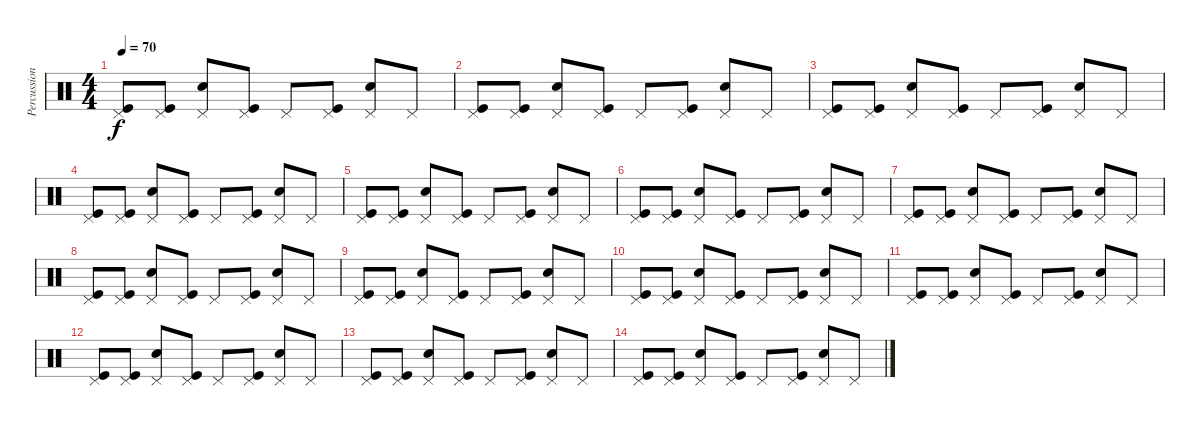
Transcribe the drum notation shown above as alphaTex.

\track ("Percussion" "Percussion") {instrument percussion}
\staff {score}
\articulation defaults
\ts (4 4)
\tempo 70
\clef neutral
\ks c
("Pedal Hi-Hat (hit)" "Kick (hit)").8{dy f} ("Pedal Hi-Hat (hit)" "Kick (hit)").8 ("Pedal Hi-Hat (hit)" "Snare (hit) 2").8 ("Pedal Hi-Hat (hit)" "Kick (hit)").8 "Pedal Hi-Hat (hit)".8 ("Pedal Hi-Hat (hit)" "Kick (hit)").8 ("Pedal Hi-Hat (hit)" "Snare (hit) 2").8 "Pedal Hi-Hat (hit)".8 |
("Pedal Hi-Hat (hit)" "Kick (hit)").8 ("Pedal Hi-Hat (hit)" "Kick (hit)").8 ("Pedal Hi-Hat (hit)" "Snare (hit) 2").8 ("Pedal Hi-Hat (hit)" "Kick (hit)").8 "Pedal Hi-Hat (hit)".8 ("Pedal Hi-Hat (hit)" "Kick (hit)").8 ("Pedal Hi-Hat (hit)" "Snare (hit) 2").8 "Pedal Hi-Hat (hit)".8 |
("Pedal Hi-Hat (hit)" "Kick (hit)").8 ("Pedal Hi-Hat (hit)" "Kick (hit)").8 ("Pedal Hi-Hat (hit)" "Snare (hit) 2").8 ("Pedal Hi-Hat (hit)" "Kick (hit)").8 "Pedal Hi-Hat (hit)".8 ("Pedal Hi-Hat (hit)" "Kick (hit)").8 ("Pedal Hi-Hat (hit)" "Snare (hit) 2").8 "Pedal Hi-Hat (hit)".8 |
("Pedal Hi-Hat (hit)" "Kick (hit)").8 ("Pedal Hi-Hat (hit)" "Kick (hit)").8 ("Pedal Hi-Hat (hit)" "Snare (hit) 2").8 ("Pedal Hi-Hat (hit)" "Kick (hit)").8 "Pedal Hi-Hat (hit)".8 ("Pedal Hi-Hat (hit)" "Kick (hit)").8 ("Pedal Hi-Hat (hit)" "Snare (hit) 2").8 "Pedal Hi-Hat (hit)".8 |
("Pedal Hi-Hat (hit)" "Kick (hit)").8 ("Pedal Hi-Hat (hit)" "Kick (hit)").8 ("Pedal Hi-Hat (hit)" "Snare (hit) 2").8 ("Pedal Hi-Hat (hit)" "Kick (hit)").8 "Pedal Hi-Hat (hit)".8 ("Pedal Hi-Hat (hit)" "Kick (hit)").8 ("Pedal Hi-Hat (hit)" "Snare (hit) 2").8 "Pedal Hi-Hat (hit)".8 |
("Pedal Hi-Hat (hit)" "Kick (hit)").8 ("Pedal Hi-Hat (hit)" "Kick (hit)").8 ("Pedal Hi-Hat (hit)" "Snare (hit) 2").8 ("Pedal Hi-Hat (hit)" "Kick (hit)").8 "Pedal Hi-Hat (hit)".8 ("Pedal Hi-Hat (hit)" "Kick (hit)").8 ("Pedal Hi-Hat (hit)" "Snare (hit) 2").8 "Pedal Hi-Hat (hit)".8 |
("Pedal Hi-Hat (hit)" "Kick (hit)").8 ("Pedal Hi-Hat (hit)" "Kick (hit)").8 ("Pedal Hi-Hat (hit)" "Snare (hit) 2").8 ("Pedal Hi-Hat (hit)" "Kick (hit)").8 "Pedal Hi-Hat (hit)".8 ("Pedal Hi-Hat (hit)" "Kick (hit)").8 ("Pedal Hi-Hat (hit)" "Snare (hit) 2").8 "Pedal Hi-Hat (hit)".8 |
("Pedal Hi-Hat (hit)" "Kick (hit)").8 ("Pedal Hi-Hat (hit)" "Kick (hit)").8 ("Pedal Hi-Hat (hit)" "Snare (hit) 2").8 ("Pedal Hi-Hat (hit)" "Kick (hit)").8 "Pedal Hi-Hat (hit)".8 ("Pedal Hi-Hat (hit)" "Kick (hit)").8 ("Pedal Hi-Hat (hit)" "Snare (hit) 2").8 "Pedal Hi-Hat (hit)".8 |
("Pedal Hi-Hat (hit)" "Kick (hit)").8 ("Pedal Hi-Hat (hit)" "Kick (hit)").8 ("Pedal Hi-Hat (hit)" "Snare (hit) 2").8 ("Pedal Hi-Hat (hit)" "Kick (hit)").8 "Pedal Hi-Hat (hit)".8 ("Pedal Hi-Hat (hit)" "Kick (hit)").8 ("Pedal Hi-Hat (hit)" "Snare (hit) 2").8 "Pedal Hi-Hat (hit)".8 |
("Pedal Hi-Hat (hit)" "Kick (hit)").8 ("Pedal Hi-Hat (hit)" "Kick (hit)").8 ("Pedal Hi-Hat (hit)" "Snare (hit) 2").8 ("Pedal Hi-Hat (hit)" "Kick (hit)").8 "Pedal Hi-Hat (hit)".8 ("Pedal Hi-Hat (hit)" "Kick (hit)").8 ("Pedal Hi-Hat (hit)" "Snare (hit) 2").8 "Pedal Hi-Hat (hit)".8 |
("Pedal Hi-Hat (hit)" "Kick (hit)").8 ("Pedal Hi-Hat (hit)" "Kick (hit)").8 ("Pedal Hi-Hat (hit)" "Snare (hit) 2").8 ("Pedal Hi-Hat (hit)" "Kick (hit)").8 "Pedal Hi-Hat (hit)".8 ("Pedal Hi-Hat (hit)" "Kick (hit)").8 ("Pedal Hi-Hat (hit)" "Snare (hit) 2").8 "Pedal Hi-Hat (hit)".8 |
("Pedal Hi-Hat (hit)" "Kick (hit)").8 ("Pedal Hi-Hat (hit)" "Kick (hit)").8 ("Pedal Hi-Hat (hit)" "Snare (hit) 2").8 ("Pedal Hi-Hat (hit)" "Kick (hit)").8 "Pedal Hi-Hat (hit)".8 ("Pedal Hi-Hat (hit)" "Kick (hit)").8 ("Pedal Hi-Hat (hit)" "Snare (hit) 2").8 "Pedal Hi-Hat (hit)".8 |
("Pedal Hi-Hat (hit)" "Kick (hit)").8 ("Pedal Hi-Hat (hit)" "Kick (hit)").8 ("Pedal Hi-Hat (hit)" "Snare (hit) 2").8 ("Pedal Hi-Hat (hit)" "Kick (hit)").8 "Pedal Hi-Hat (hit)".8 ("Pedal Hi-Hat (hit)" "Kick (hit)").8 ("Pedal Hi-Hat (hit)" "Snare (hit) 2").8 "Pedal Hi-Hat (hit)".8 |
("Pedal Hi-Hat (hit)" "Kick (hit)").8 ("Pedal Hi-Hat (hit)" "Kick (hit)").8 ("Pedal Hi-Hat (hit)" "Snare (hit) 2").8 ("Pedal Hi-Hat (hit)" "Kick (hit)").8 "Pedal Hi-Hat (hit)".8 ("Pedal Hi-Hat (hit)" "Kick (hit)").8 ("Pedal Hi-Hat (hit)" "Snare (hit) 2").8 "Pedal Hi-Hat (hit)".8
